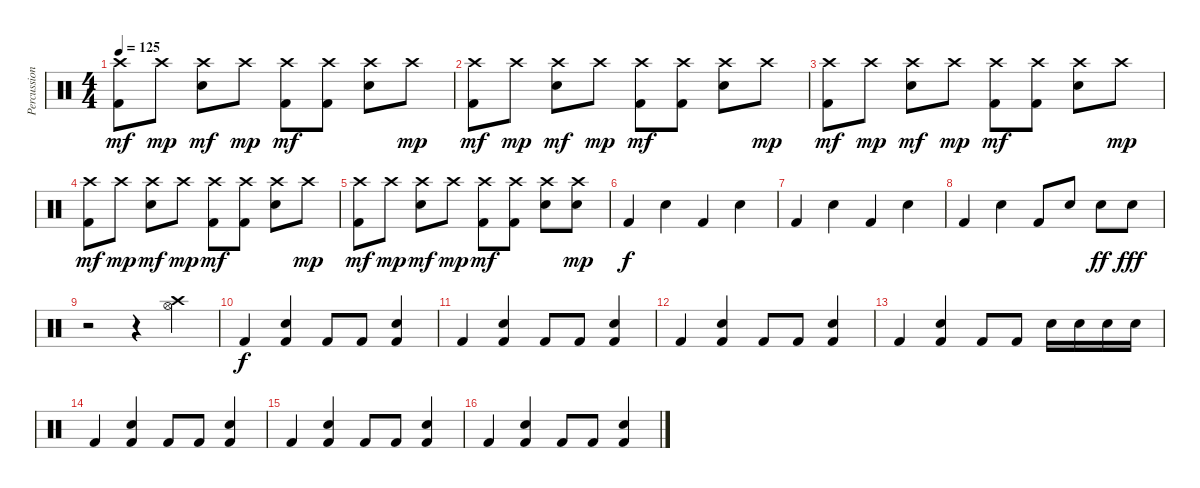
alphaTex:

\track ("Percussion" "Percussion") {instrument percussion}
\staff {score}
\articulation defaults
\ts (4 4)
\tempo 125
\clef neutral
\ks c
("Crash high (hit)" "Kick (hit) 2").8{dy mf} "Crash high (hit)".8{dy mp} ("Crash high (hit)" "Electric Snare (hit)").8{dy mf} "Crash high (hit)".8{dy mp} ("Crash high (hit)" "Kick (hit) 2").8{dy mf} ("Crash high (hit)" "Kick (hit) 2").8 ("Crash high (hit)" "Electric Snare (hit)").8 "Crash high (hit)".8{dy mp} |
("Crash high (hit)" "Kick (hit) 2").8{dy mf} "Crash high (hit)".8{dy mp} ("Crash high (hit)" "Electric Snare (hit)").8{dy mf} "Crash high (hit)".8{dy mp} ("Crash high (hit)" "Kick (hit) 2").8{dy mf} ("Crash high (hit)" "Kick (hit) 2").8 ("Crash high (hit)" "Electric Snare (hit)").8 "Crash high (hit)".8{dy mp} |
("Crash high (hit)" "Kick (hit) 2").8{dy mf} "Crash high (hit)".8{dy mp} ("Crash high (hit)" "Electric Snare (hit)").8{dy mf} "Crash high (hit)".8{dy mp} ("Crash high (hit)" "Kick (hit) 2").8{dy mf} ("Crash high (hit)" "Kick (hit) 2").8 ("Crash high (hit)" "Electric Snare (hit)").8 "Crash high (hit)".8{dy mp} |
("Crash high (hit)" "Kick (hit) 2").8{dy mf} "Crash high (hit)".8{dy mp} ("Crash high (hit)" "Electric Snare (hit)").8{dy mf} "Crash high (hit)".8{dy mp} ("Crash high (hit)" "Kick (hit) 2").8{dy mf} ("Crash high (hit)" "Kick (hit) 2").8 ("Crash high (hit)" "Electric Snare (hit)").8 "Crash high (hit)".8{dy mp} |
("Crash high (hit)" "Kick (hit) 2").8{dy mf} "Crash high (hit)".8{dy mp} ("Crash high (hit)" "Electric Snare (hit)").8{dy mf} "Crash high (hit)".8{dy mp} ("Crash high (hit)" "Kick (hit) 2").8{dy mf} ("Crash high (hit)" "Kick (hit) 2").8 ("Crash high (hit)" "Electric Snare (hit)").8 ("Crash high (hit)" "Electric Snare (hit)").8{dy mp} |
"Kick (hit) 2".4{dy f} "Electric Snare (hit)".4 "Kick (hit) 2".4 "Electric Snare (hit)".4 |
"Kick (hit) 2".4 "Electric Snare (hit)".4 "Kick (hit) 2".4 "Electric Snare (hit)".4 |
"Kick (hit) 2".4 "Electric Snare (hit)".4 "Kick (hit) 2".8 "Electric Snare (hit)".8 "Electric Snare (hit)".8{dy ff} "Electric Snare (hit)".8{dy fff} |
r.2 r.4 ("Crash high (hit)" "Hi-Hat (open)").4 |
"Kick (hit) 2".4{dy f} ("Electric Snare (hit)" "Kick (hit) 2").4 "Kick (hit) 2".8 "Kick (hit) 2".8 ("Electric Snare (hit)" "Kick (hit) 2").4 |
"Kick (hit) 2".4 ("Electric Snare (hit)" "Kick (hit) 2").4 "Kick (hit) 2".8 "Kick (hit) 2".8 ("Electric Snare (hit)" "Kick (hit) 2").4 |
"Kick (hit) 2".4 ("Electric Snare (hit)" "Kick (hit) 2").4 "Kick (hit) 2".8 "Kick (hit) 2".8 ("Electric Snare (hit)" "Kick (hit) 2").4 |
"Kick (hit) 2".4 ("Electric Snare (hit)" "Kick (hit) 2").4 "Kick (hit) 2".8 "Kick (hit) 2".8 "Electric Snare (hit)".16 "Electric Snare (hit)".16 "Electric Snare (hit)".16 "Electric Snare (hit)".16 |
"Kick (hit) 2".4 ("Electric Snare (hit)" "Kick (hit) 2").4 "Kick (hit) 2".8 "Kick (hit) 2".8 ("Electric Snare (hit)" "Kick (hit) 2").4 |
"Kick (hit) 2".4 ("Electric Snare (hit)" "Kick (hit) 2").4 "Kick (hit) 2".8 "Kick (hit) 2".8 ("Electric Snare (hit)" "Kick (hit) 2").4 |
"Kick (hit) 2".4 ("Electric Snare (hit)" "Kick (hit) 2").4 "Kick (hit) 2".8 "Kick (hit) 2".8 ("Electric Snare (hit)" "Kick (hit) 2").4
